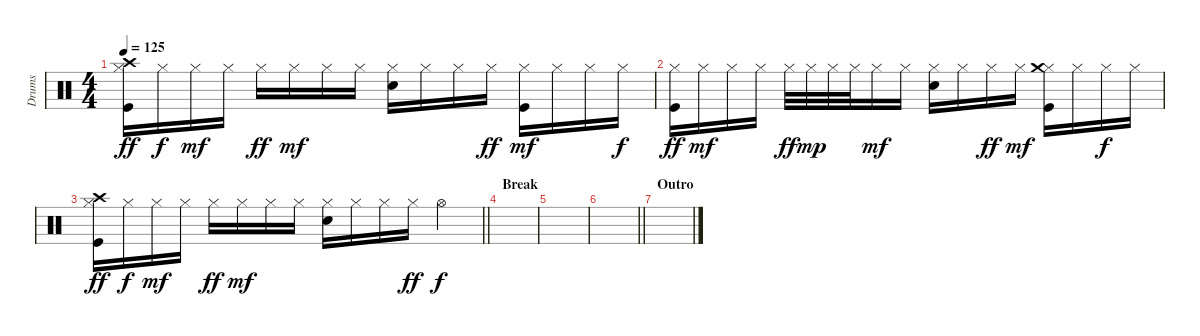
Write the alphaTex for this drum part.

\track ("Drums" "Drums") {instrument percussion}
\staff {score}
\articulation defaults
\ts (4 4)
\tempo 125
\clef neutral
\ks c
("Hi-Hat (closed)" "Kick (hit)" "Crash high (hit)").16{dy ff} "Hi-Hat (closed)".16{dy f} "Hi-Hat (closed)".16{dy mf} "Hi-Hat (closed)".16 "Hi-Hat (closed)".16{dy ff} "Hi-Hat (closed)".16{dy mf} "Hi-Hat (closed)".16 "Hi-Hat (closed)".16 ("Hi-Hat (closed)" "Electric Snare (hit)").16 "Hi-Hat (closed)".16 "Hi-Hat (closed)".16 "Hi-Hat (closed)".16{dy ff} ("Hi-Hat (closed)" "Kick (hit)").16{dy mf} "Hi-Hat (closed)".16 "Hi-Hat (closed)".16 "Hi-Hat (closed)".16{dy f} |
("Kick (hit)" "Hi-Hat (closed)").16{dy ff} "Hi-Hat (closed)".16{dy mf} "Hi-Hat (closed)".16 "Hi-Hat (closed)".16 "Hi-Hat (closed)".32{dy ff} "Hi-Hat (closed)".32{dy mp} "Hi-Hat (closed)".32 "Hi-Hat (closed)".32 "Hi-Hat (closed)".16{dy mf} "Hi-Hat (closed)".16 ("Hi-Hat (closed)" "Electric Snare (hit)").16 "Hi-Hat (closed)".16 "Hi-Hat (closed)".16{dy ff} "Hi-Hat (closed)".16{dy mf} ("Hi-Hat (closed)" "Kick (hit)" "Crash medium (hit)").16 "Hi-Hat (closed)".16 "Hi-Hat (closed)".16{dy f} "Hi-Hat (closed)".16 |
\barLineRight lightlight
("Hi-Hat (closed)" "Kick (hit)" "Crash high (hit)").16{dy ff} "Hi-Hat (closed)".16{dy f} "Hi-Hat (closed)".16{dy mf} "Hi-Hat (closed)".16 "Hi-Hat (closed)".16{dy ff} "Hi-Hat (closed)".16{dy mf} "Hi-Hat (closed)".16 "Hi-Hat (closed)".16 ("Hi-Hat (closed)" "Electric Snare (hit)").16 "Hi-Hat (closed)".16 "Hi-Hat (closed)".16 "Hi-Hat (closed)".16{dy ff} "Hi-Hat (open)".4{dy f} |
\section ("" "Break")
|
|
\barLineRight lightlight
|
\section ("" "Outro")
